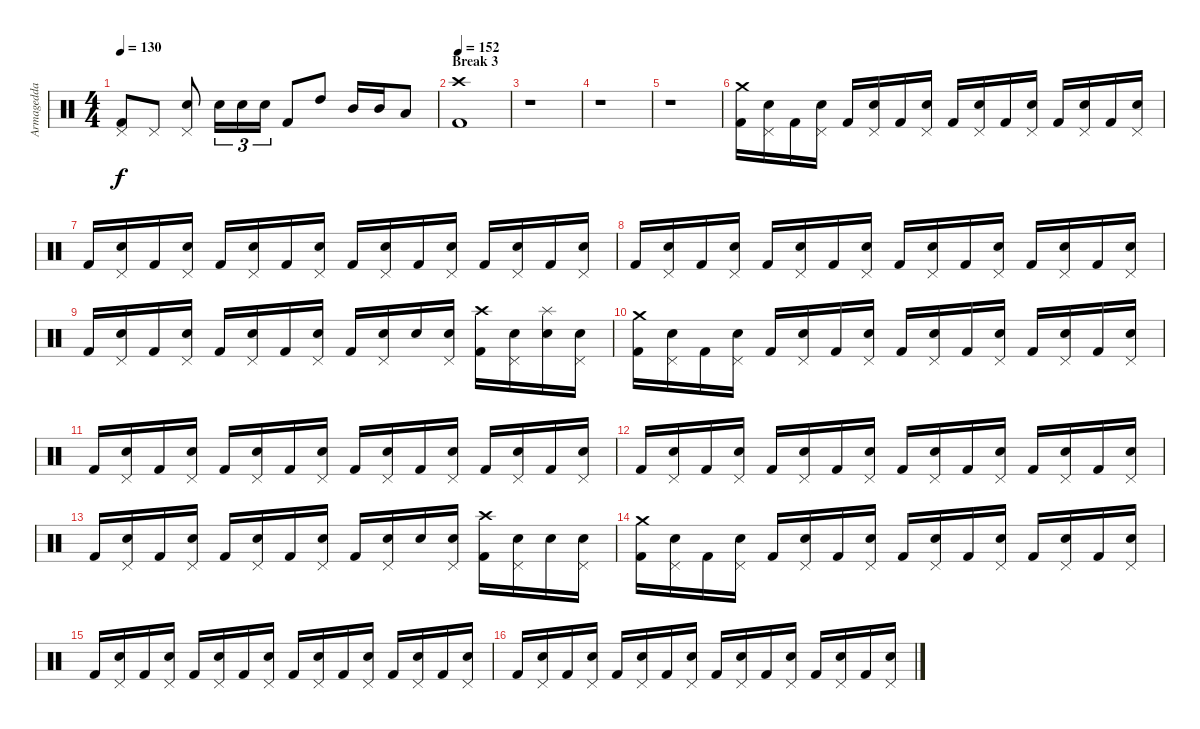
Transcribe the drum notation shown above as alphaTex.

\track ("Armagedda" "Armagedda") {instrument percussion}
\staff {score}
\articulation defaults
\ts (4 4)
\tempo 130
\clef neutral
\ks c
("Pedal Hi-Hat (hit)" "Kick (hit) 2").8{dy f} "Pedal Hi-Hat (hit)".8 ("Pedal Hi-Hat (hit)" "Electric Snare (hit)").8 "Electric Snare (hit)".16{tu (3 2)} "Electric Snare (hit)".16{tu (3 2)} "Electric Snare (hit)".16{tu (3 2)} "Kick (hit) 2".8 "High Tom (hit)".8 "Mid Tom (hit)".16 "Mid Tom (hit)".16 "Low Tom (hit)".8 |
\section ("" "Break 3")
\tempo 152
("Crash high (hit)" "Kick (hit) 2").1 |
r.1 |
r.1 |
r.1 |
("Crash medium (hit)" "Kick (hit) 2").16 ("Pedal Hi-Hat (hit)" "Electric Snare (hit)").16 "Kick (hit) 2".16 ("Pedal Hi-Hat (hit)" "Electric Snare (hit)").16 "Kick (hit) 2".16 ("Pedal Hi-Hat (hit)" "Electric Snare (hit)").16 "Kick (hit) 2".16 ("Pedal Hi-Hat (hit)" "Electric Snare (hit)").16 "Kick (hit) 2".16 ("Pedal Hi-Hat (hit)" "Electric Snare (hit)").16 "Kick (hit) 2".16 ("Pedal Hi-Hat (hit)" "Electric Snare (hit)").16 "Kick (hit) 2".16 ("Pedal Hi-Hat (hit)" "Electric Snare (hit)").16 "Kick (hit) 2".16 ("Pedal Hi-Hat (hit)" "Electric Snare (hit)").16 |
"Kick (hit) 2".16 ("Pedal Hi-Hat (hit)" "Electric Snare (hit)").16 "Kick (hit) 2".16 ("Pedal Hi-Hat (hit)" "Electric Snare (hit)").16 "Kick (hit) 2".16 ("Pedal Hi-Hat (hit)" "Electric Snare (hit)").16 "Kick (hit) 2".16 ("Pedal Hi-Hat (hit)" "Electric Snare (hit)").16 "Kick (hit) 2".16 ("Pedal Hi-Hat (hit)" "Electric Snare (hit)").16 "Kick (hit) 2".16 ("Pedal Hi-Hat (hit)" "Electric Snare (hit)").16 "Kick (hit) 2".16 ("Pedal Hi-Hat (hit)" "Electric Snare (hit)").16 "Kick (hit) 2".16 ("Pedal Hi-Hat (hit)" "Electric Snare (hit)").16 |
"Kick (hit) 2".16 ("Pedal Hi-Hat (hit)" "Electric Snare (hit)").16 "Kick (hit) 2".16 ("Pedal Hi-Hat (hit)" "Electric Snare (hit)").16 "Kick (hit) 2".16 ("Pedal Hi-Hat (hit)" "Electric Snare (hit)").16 "Kick (hit) 2".16 ("Pedal Hi-Hat (hit)" "Electric Snare (hit)").16 "Kick (hit) 2".16 ("Pedal Hi-Hat (hit)" "Electric Snare (hit)").16 "Kick (hit) 2".16 ("Pedal Hi-Hat (hit)" "Electric Snare (hit)").16 "Kick (hit) 2".16 ("Pedal Hi-Hat (hit)" "Electric Snare (hit)").16 "Kick (hit) 2".16 ("Pedal Hi-Hat (hit)" "Electric Snare (hit)").16 |
"Kick (hit) 2".16 ("Pedal Hi-Hat (hit)" "Electric Snare (hit)").16 "Kick (hit) 2".16 ("Pedal Hi-Hat (hit)" "Electric Snare (hit)").16 "Kick (hit) 2".16 ("Pedal Hi-Hat (hit)" "Electric Snare (hit)").16 "Kick (hit) 2".16 ("Pedal Hi-Hat (hit)" "Electric Snare (hit)").16 "Kick (hit) 2".16 ("Pedal Hi-Hat (hit)" "Electric Snare (hit)").16 "Electric Snare (hit)".16 ("Pedal Hi-Hat (hit)" "Electric Snare (hit)").16 ("Crash high (hit)" "Kick (hit) 2").16 ("Pedal Hi-Hat (hit)" "Electric Snare (hit)").16 ("Splash (hit)" "Electric Snare (hit)").16 ("Pedal Hi-Hat (hit)" "Electric Snare (hit)").16 |
("Crash medium (hit)" "Kick (hit) 2").16 ("Pedal Hi-Hat (hit)" "Electric Snare (hit)").16 "Kick (hit) 2".16 ("Pedal Hi-Hat (hit)" "Electric Snare (hit)").16 "Kick (hit) 2".16 ("Pedal Hi-Hat (hit)" "Electric Snare (hit)").16 "Kick (hit) 2".16 ("Pedal Hi-Hat (hit)" "Electric Snare (hit)").16 "Kick (hit) 2".16 ("Pedal Hi-Hat (hit)" "Electric Snare (hit)").16 "Kick (hit) 2".16 ("Pedal Hi-Hat (hit)" "Electric Snare (hit)").16 "Kick (hit) 2".16 ("Pedal Hi-Hat (hit)" "Electric Snare (hit)").16 "Kick (hit) 2".16 ("Pedal Hi-Hat (hit)" "Electric Snare (hit)").16 |
"Kick (hit) 2".16 ("Pedal Hi-Hat (hit)" "Electric Snare (hit)").16 "Kick (hit) 2".16 ("Pedal Hi-Hat (hit)" "Electric Snare (hit)").16 "Kick (hit) 2".16 ("Pedal Hi-Hat (hit)" "Electric Snare (hit)").16 "Kick (hit) 2".16 ("Pedal Hi-Hat (hit)" "Electric Snare (hit)").16 "Kick (hit) 2".16 ("Pedal Hi-Hat (hit)" "Electric Snare (hit)").16 "Kick (hit) 2".16 ("Pedal Hi-Hat (hit)" "Electric Snare (hit)").16 "Kick (hit) 2".16 ("Pedal Hi-Hat (hit)" "Electric Snare (hit)").16 "Kick (hit) 2".16 ("Pedal Hi-Hat (hit)" "Electric Snare (hit)").16 |
"Kick (hit) 2".16 ("Pedal Hi-Hat (hit)" "Electric Snare (hit)").16 "Kick (hit) 2".16 ("Pedal Hi-Hat (hit)" "Electric Snare (hit)").16 "Kick (hit) 2".16 ("Pedal Hi-Hat (hit)" "Electric Snare (hit)").16 "Kick (hit) 2".16 ("Pedal Hi-Hat (hit)" "Electric Snare (hit)").16 "Kick (hit) 2".16 ("Pedal Hi-Hat (hit)" "Electric Snare (hit)").16 "Kick (hit) 2".16 ("Pedal Hi-Hat (hit)" "Electric Snare (hit)").16 "Kick (hit) 2".16 ("Pedal Hi-Hat (hit)" "Electric Snare (hit)").16 "Kick (hit) 2".16 ("Pedal Hi-Hat (hit)" "Electric Snare (hit)").16 |
"Kick (hit) 2".16 ("Pedal Hi-Hat (hit)" "Electric Snare (hit)").16 "Kick (hit) 2".16 ("Pedal Hi-Hat (hit)" "Electric Snare (hit)").16 "Kick (hit) 2".16 ("Pedal Hi-Hat (hit)" "Electric Snare (hit)").16 "Kick (hit) 2".16 ("Pedal Hi-Hat (hit)" "Electric Snare (hit)").16 "Kick (hit) 2".16 ("Pedal Hi-Hat (hit)" "Electric Snare (hit)").16 "Electric Snare (hit)".16 ("Pedal Hi-Hat (hit)" "Electric Snare (hit)").16 ("Crash high (hit)" "Kick (hit) 2").16 ("Pedal Hi-Hat (hit)" "Electric Snare (hit)").16 "Electric Snare (hit)".16 ("Pedal Hi-Hat (hit)" "Electric Snare (hit)").16 |
("Crash medium (hit)" "Kick (hit) 2").16 ("Pedal Hi-Hat (hit)" "Electric Snare (hit)").16 "Kick (hit) 2".16 ("Pedal Hi-Hat (hit)" "Electric Snare (hit)").16 "Kick (hit) 2".16 ("Pedal Hi-Hat (hit)" "Electric Snare (hit)").16 "Kick (hit) 2".16 ("Pedal Hi-Hat (hit)" "Electric Snare (hit)").16 "Kick (hit) 2".16 ("Pedal Hi-Hat (hit)" "Electric Snare (hit)").16 "Kick (hit) 2".16 ("Pedal Hi-Hat (hit)" "Electric Snare (hit)").16 "Kick (hit) 2".16 ("Pedal Hi-Hat (hit)" "Electric Snare (hit)").16 "Kick (hit) 2".16 ("Pedal Hi-Hat (hit)" "Electric Snare (hit)").16 |
"Kick (hit) 2".16 ("Pedal Hi-Hat (hit)" "Electric Snare (hit)").16 "Kick (hit) 2".16 ("Pedal Hi-Hat (hit)" "Electric Snare (hit)").16 "Kick (hit) 2".16 ("Pedal Hi-Hat (hit)" "Electric Snare (hit)").16 "Kick (hit) 2".16 ("Pedal Hi-Hat (hit)" "Electric Snare (hit)").16 "Kick (hit) 2".16 ("Pedal Hi-Hat (hit)" "Electric Snare (hit)").16 "Kick (hit) 2".16 ("Pedal Hi-Hat (hit)" "Electric Snare (hit)").16 "Kick (hit) 2".16 ("Pedal Hi-Hat (hit)" "Electric Snare (hit)").16 "Kick (hit) 2".16 ("Pedal Hi-Hat (hit)" "Electric Snare (hit)").16 |
"Kick (hit) 2".16 ("Pedal Hi-Hat (hit)" "Electric Snare (hit)").16 "Kick (hit) 2".16 ("Pedal Hi-Hat (hit)" "Electric Snare (hit)").16 "Kick (hit) 2".16 ("Pedal Hi-Hat (hit)" "Electric Snare (hit)").16 "Kick (hit) 2".16 ("Pedal Hi-Hat (hit)" "Electric Snare (hit)").16 "Kick (hit) 2".16 ("Pedal Hi-Hat (hit)" "Electric Snare (hit)").16 "Kick (hit) 2".16 ("Pedal Hi-Hat (hit)" "Electric Snare (hit)").16 "Kick (hit) 2".16 ("Pedal Hi-Hat (hit)" "Electric Snare (hit)").16 "Kick (hit) 2".16 ("Pedal Hi-Hat (hit)" "Electric Snare (hit)").16
